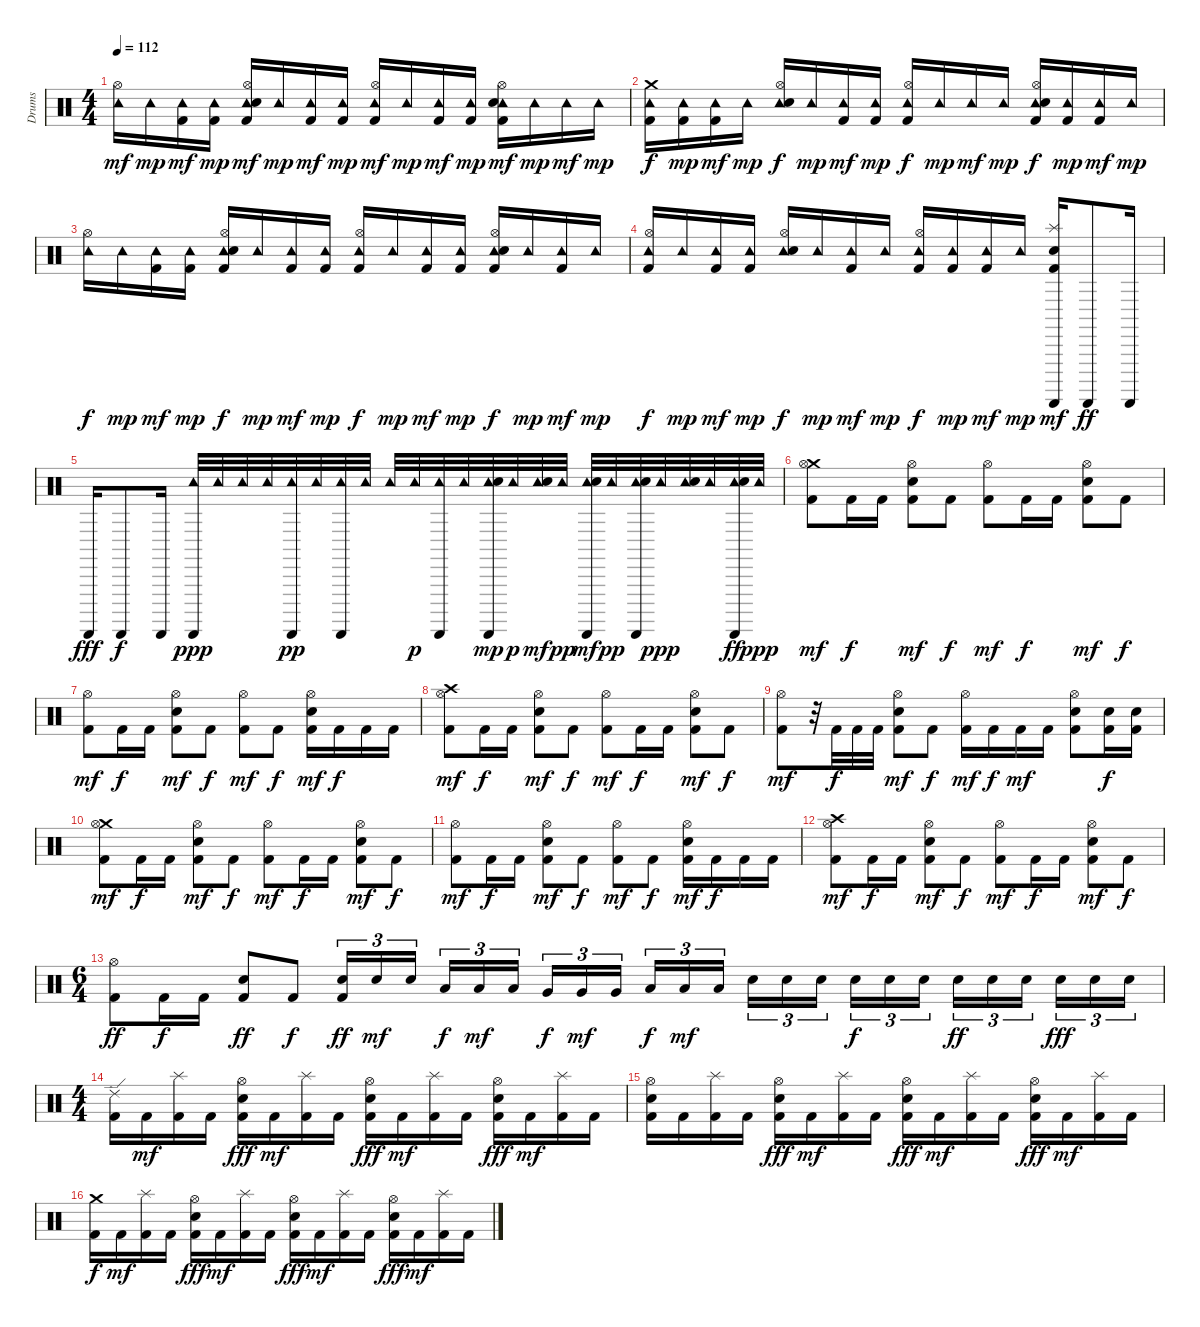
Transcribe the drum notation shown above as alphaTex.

\track ("Drums" "Drums") {instrument percussion}
\staff {score}
\articulation defaults
\ts (4 4)
\tempo 112
\clef neutral
\ks c
("Tambourine (hit)" "Hi-Hat (open)").16{dy mf} "Tambourine (hit)".16{dy mp} ("Tambourine (hit)" "Kick (hit) 2").16{dy mf} ("Tambourine (hit)" "Kick (hit) 2").16{dy mp} ("Tambourine (hit)" "Hi-Hat (open)" "Electric Snare (hit)" "Kick (hit) 2").16{dy mf} "Tambourine (hit)".16{dy mp} ("Tambourine (hit)" "Kick (hit) 2").16{dy mf} ("Tambourine (hit)" "Kick (hit) 2").16{dy mp} ("Tambourine (hit)" "Hi-Hat (open)" "Kick (hit) 2").16{dy mf} "Tambourine (hit)".16{dy mp} ("Tambourine (hit)" "Kick (hit) 2").16{dy mf} ("Tambourine (hit)" "Kick (hit) 2").16{dy mp} ("Tambourine (hit)" "Hi-Hat (open)" "Electric Snare (hit)" "Kick (hit) 2").16{dy mf} "Tambourine (hit)".16{dy mp} "Tambourine (hit)".16{dy mf} "Tambourine (hit)".16{dy mp} |
("Crash medium (hit)" "Tambourine (hit)" "Kick (hit) 2").16{dy f} ("Tambourine (hit)" "Kick (hit) 2").16{dy mp} ("Tambourine (hit)" "Kick (hit) 2").16{dy mf} "Tambourine (hit)".16{dy mp} ("Tambourine (hit)" "Hi-Hat (open)" "Electric Snare (hit)").16{dy f} "Tambourine (hit)".16{dy mp} ("Tambourine (hit)" "Kick (hit) 2").16{dy mf} ("Tambourine (hit)" "Kick (hit) 2").16{dy mp} ("Tambourine (hit)" "Hi-Hat (open)" "Kick (hit) 2").16{dy f} "Tambourine (hit)".16{dy mp} "Tambourine (hit)".16{dy mf} "Tambourine (hit)".16{dy mp} ("Tambourine (hit)" "Hi-Hat (open)" "Electric Snare (hit)" "Kick (hit) 2").16{dy f} ("Tambourine (hit)" "Kick (hit) 2").16{dy mp} ("Tambourine (hit)" "Kick (hit) 2").16{dy mf} "Tambourine (hit)".16{dy mp} |
("Tambourine (hit)" "Hi-Hat (open)").16{dy f} "Tambourine (hit)".16{dy mp} ("Tambourine (hit)" "Kick (hit) 2").16{dy mf} ("Tambourine (hit)" "Kick (hit) 2").16{dy mp} ("Tambourine (hit)" "Hi-Hat (open)" "Electric Snare (hit)" "Kick (hit) 2").16{dy f} "Tambourine (hit)".16{dy mp} ("Tambourine (hit)" "Kick (hit) 2").16{dy mf} ("Tambourine (hit)" "Kick (hit) 2").16{dy mp} ("Tambourine (hit)" "Hi-Hat (open)" "Kick (hit) 2").16{dy f} "Tambourine (hit)".16{dy mp} ("Tambourine (hit)" "Kick (hit) 2").16{dy mf} ("Tambourine (hit)" "Kick (hit) 2").16{dy mp} ("Tambourine (hit)" "Hi-Hat (open)" "Electric Snare (hit)" "Kick (hit) 2").16{dy f} "Tambourine (hit)".16{dy mp} ("Tambourine (hit)" "Kick (hit) 2").16{dy mf} "Tambourine (hit)".16{dy mp} |
("Tambourine (hit)" "Hi-Hat (open)" "Kick (hit) 2").16{dy f} "Tambourine (hit)".16{dy mp} ("Tambourine (hit)" "Kick (hit) 2").16{dy mf} ("Tambourine (hit)" "Kick (hit) 2").16{dy mp} ("Tambourine (hit)" "Hi-Hat (open)" "Electric Snare (hit)").16{dy f} "Tambourine (hit)".16{dy mp} ("Tambourine (hit)" "Kick (hit) 2").16{dy mf} "Tambourine (hit)".16{dy mp} ("Tambourine (hit)" "Hi-Hat (open)" "Kick (hit) 2").16{dy f} ("Tambourine (hit)" "Kick (hit) 2").16{dy mp} ("Tambourine (hit)" "Kick (hit) 2").16{dy mf} "Tambourine (hit)".16{dy mp} ("Guiro (scrap-return)" "Splash (hit)" "Electric Snare (hit)" "Kick (hit) 2").16{dy mf} "Guiro (scrap-return)".8{dy ff} "Guiro (scrap-return)".16 |
"Guiro (scrap-return)".16{dy fff} "Guiro (scrap-return)".8{dy f} "Guiro (scrap-return)".16 ("Guiro (scrap-return)" "Tambourine (hit)").32{dy ppp} "Tambourine (hit)".32 "Tambourine (hit)".32 "Tambourine (hit)".32 ("Guiro (scrap-return)" "Tambourine (hit)").32{dy pp} "Tambourine (hit)".32 ("Guiro (scrap-return)" "Tambourine (hit)").32 "Tambourine (hit)".32 "Tambourine (hit)".32 "Tambourine (hit)".32{dy p} ("Guiro (scrap-return)" "Tambourine (hit)").32 "Tambourine (hit)".32 ("Guiro (scrap-return)" "Tambourine (hit)" "Electric Snare (hit)").32{dy mp} "Tambourine (hit)".32{dy p} ("Tambourine (hit)" "Electric Snare (hit)").32{dy mf} "Tambourine (hit)".32{dy pp} ("Guiro (scrap-return)" "Tambourine (hit)" "Electric Snare (hit)").32{dy mf} "Tambourine (hit)".32{dy pp} ("Guiro (scrap-return)" "Tambourine (hit)" "Electric Snare (hit)").32 "Tambourine (hit)".32{dy ppp} ("Tambourine (hit)" "Electric Snare (hit)").32 "Tambourine (hit)".32 ("Guiro (scrap-return)" "Tambourine (hit)" "Electric Snare (hit)").32{dy ff} "Tambourine (hit)".32{dy ppp} |
("Crash medium (hit)" "Hi-Hat (open)" "Kick (hit) 2").8{dy mf} "Kick (hit) 2".16{dy f} "Kick (hit) 2".16 ("Hi-Hat (open)" "Electric Snare (hit)" "Kick (hit) 2").8{dy mf} "Kick (hit) 2".8{dy f} ("Hi-Hat (open)" "Kick (hit) 2").8{dy mf} "Kick (hit) 2".16{dy f} "Kick (hit) 2".16 ("Hi-Hat (open)" "Electric Snare (hit)" "Kick (hit) 2").8{dy mf} "Kick (hit) 2".8{dy f} |
("Hi-Hat (open)" "Kick (hit) 2").8{dy mf} "Kick (hit) 2".16{dy f} "Kick (hit) 2".16 ("Hi-Hat (open)" "Electric Snare (hit)" "Kick (hit) 2").8{dy mf} "Kick (hit) 2".8{dy f} ("Hi-Hat (open)" "Kick (hit) 2").8{dy mf} "Kick (hit) 2".8{dy f} ("Hi-Hat (open)" "Electric Snare (hit)" "Kick (hit) 2").16{dy mf} "Kick (hit) 2".16{dy f} "Kick (hit) 2".16 "Kick (hit) 2".16 |
("Crash high (hit)" "Hi-Hat (open)" "Kick (hit) 2").8{dy mf} "Kick (hit) 2".16{dy f} "Kick (hit) 2".16 ("Hi-Hat (open)" "Electric Snare (hit)" "Kick (hit) 2").8{dy mf} "Kick (hit) 2".8{dy f} ("Hi-Hat (open)" "Kick (hit) 2").8{dy mf} "Kick (hit) 2".16{dy f} "Kick (hit) 2".16 ("Hi-Hat (open)" "Electric Snare (hit)" "Kick (hit) 2").8{dy mf} "Kick (hit) 2".8{dy f} |
("Hi-Hat (open)" "Kick (hit) 2").8{dy mf} r.32 "Kick (hit) 2".32{dy f} "Kick (hit) 2".32 "Kick (hit) 2".32 ("Hi-Hat (open)" "Electric Snare (hit)" "Kick (hit) 2").8{dy mf} "Kick (hit) 2".8{dy f} ("Hi-Hat (open)" "Kick (hit) 2").16{dy mf} "Kick (hit) 2".16{dy f} "Kick (hit) 2".16{dy mf} "Kick (hit) 2".16 ("Hi-Hat (open)" "Electric Snare (hit)" "Kick (hit) 2").8 ("Electric Snare (hit)" "Kick (hit) 2").16{dy f} ("Electric Snare (hit)" "Kick (hit) 2").16 |
("Crash medium (hit)" "Hi-Hat (open)" "Kick (hit) 2").8{dy mf} "Kick (hit) 2".16{dy f} "Kick (hit) 2".16 ("Hi-Hat (open)" "Electric Snare (hit)" "Kick (hit) 2").8{dy mf} "Kick (hit) 2".8{dy f} ("Hi-Hat (open)" "Kick (hit) 2").8{dy mf} "Kick (hit) 2".16{dy f} "Kick (hit) 2".16 ("Hi-Hat (open)" "Electric Snare (hit)" "Kick (hit) 2").8{dy mf} "Kick (hit) 2".8{dy f} |
("Hi-Hat (open)" "Kick (hit) 2").8{dy mf} "Kick (hit) 2".16{dy f} "Kick (hit) 2".16 ("Hi-Hat (open)" "Electric Snare (hit)" "Kick (hit) 2").8{dy mf} "Kick (hit) 2".8{dy f} ("Hi-Hat (open)" "Kick (hit) 2").8{dy mf} "Kick (hit) 2".8{dy f} ("Hi-Hat (open)" "Electric Snare (hit)" "Kick (hit) 2").16{dy mf} "Kick (hit) 2".16{dy f} "Kick (hit) 2".16 "Kick (hit) 2".16 |
("Crash high (hit)" "Hi-Hat (open)" "Kick (hit) 2").8{dy mf} "Kick (hit) 2".16{dy f} "Kick (hit) 2".16 ("Hi-Hat (open)" "Electric Snare (hit)" "Kick (hit) 2").8{dy mf} "Kick (hit) 2".8{dy f} ("Hi-Hat (open)" "Kick (hit) 2").8{dy mf} "Kick (hit) 2".16{dy f} "Kick (hit) 2".16 ("Hi-Hat (open)" "Electric Snare (hit)" "Kick (hit) 2").8{dy mf} "Kick (hit) 2".8{dy f} |
\ts (6 4)
("Hi-Hat (open)" "Kick (hit) 2").8{dy ff} "Kick (hit) 2".16{dy f} "Kick (hit) 2".16 ("Electric Snare (hit)" "Kick (hit) 2").8{dy ff} "Kick (hit) 2".8{dy f} ("Electric Snare (hit)" "Kick (hit) 2").16{tu (3 2) dy ff} "Electric Snare (hit)".16{tu (3 2) dy mf} "Electric Snare (hit)".16{tu (3 2) beam splitsecondary} "Low Tom (hit)".16{tu (3 2) dy f} "Low Tom (hit)".16{tu (3 2) dy mf} "Low Tom (hit)".16{tu (3 2)} "Very Low Tom (hit)".16{tu (3 2) dy f} "Very Low Tom (hit)".16{tu (3 2) dy mf} "Very Low Tom (hit)".16{tu (3 2) beam splitsecondary} "Low Floor Tom (hit)".16{tu (3 2) dy f} "Low Floor Tom (hit)".16{tu (3 2) dy mf} "Low Floor Tom (hit)".16{tu (3 2) beam splitsecondary} "Electric Snare (hit)".16{tu (3 2)} "Electric Snare (hit)".16{tu (3 2)} "Electric Snare (hit)".16{tu (3 2) beam splitsecondary} "Electric Snare (hit)".16{tu (3 2) dy f} "Electric Snare (hit)".16{tu (3 2)} "Electric Snare (hit)".16{tu (3 2) beam splitsecondary} "Electric Snare (hit)".16{tu (3 2) dy ff} "Electric Snare (hit)".16{tu (3 2)} "Electric Snare (hit)".16{tu (3 2) beam splitsecondary} "Electric Snare (hit)".16{tu (3 2) dy fff} "Electric Snare (hit)".16{tu (3 2)} "Electric Snare (hit)".16{tu (3 2)} |
\ts (4 4)
("Ride (edge) 2" "Kick (hit) 2").16 "Kick (hit) 2".16{dy mf} ("Splash (hit)" "Kick (hit) 2").16 "Kick (hit) 2".16 ("Hi-Hat (open)" "Electric Snare (hit)" "Kick (hit) 2").16{dy fff} "Kick (hit) 2".16{dy mf} ("Splash (hit)" "Kick (hit) 2").16 "Kick (hit) 2".16 ("Hi-Hat (open)" "Electric Snare (hit)" "Kick (hit) 2").16{dy fff} "Kick (hit) 2".16{dy mf} ("Splash (hit)" "Kick (hit) 2").16 "Kick (hit) 2".16 ("Hi-Hat (open)" "Electric Snare (hit)" "Kick (hit) 2").16{dy fff} "Kick (hit) 2".16{dy mf} ("Splash (hit)" "Kick (hit) 2").16 "Kick (hit) 2".16 |
("Hi-Hat (open)" "Electric Snare (hit)" "Kick (hit) 2").16 "Kick (hit) 2".16 ("Splash (hit)" "Kick (hit) 2").16 "Kick (hit) 2".16 ("Hi-Hat (open)" "Electric Snare (hit)" "Kick (hit) 2").16{dy fff} "Kick (hit) 2".16{dy mf} ("Splash (hit)" "Kick (hit) 2").16 "Kick (hit) 2".16 ("Hi-Hat (open)" "Electric Snare (hit)" "Kick (hit) 2").16{dy fff} "Kick (hit) 2".16{dy mf} ("Splash (hit)" "Kick (hit) 2").16 "Kick (hit) 2".16 ("Hi-Hat (open)" "Electric Snare (hit)" "Kick (hit) 2").16{dy fff} "Kick (hit) 2".16{dy mf} ("Splash (hit)" "Kick (hit) 2").16 "Kick (hit) 2".16 |
("Crash medium (hit)" "Kick (hit) 2").16{dy f} "Kick (hit) 2".16{dy mf} ("Splash (hit)" "Kick (hit) 2").16 "Kick (hit) 2".16 ("Hi-Hat (open)" "Electric Snare (hit)" "Kick (hit) 2").16{dy fff} "Kick (hit) 2".16{dy mf} ("Splash (hit)" "Kick (hit) 2").16 "Kick (hit) 2".16 ("Hi-Hat (open)" "Electric Snare (hit)" "Kick (hit) 2").16{dy fff} "Kick (hit) 2".16{dy mf} ("Splash (hit)" "Kick (hit) 2").16 "Kick (hit) 2".16 ("Hi-Hat (open)" "Electric Snare (hit)" "Kick (hit) 2").16{dy fff} "Kick (hit) 2".16{dy mf} ("Splash (hit)" "Kick (hit) 2").16 "Kick (hit) 2".16
